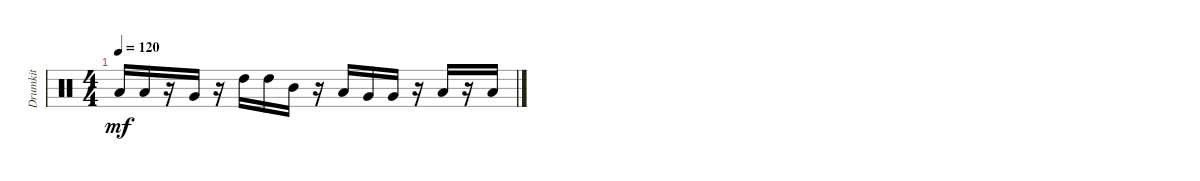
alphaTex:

\track ("Drumkit" "Drumkit") {instrument percussion}
\staff {score}
\articulation defaults
\ts (4 4)
\tempo 120
\clef neutral
\ks c "Low Tom (hit)".16{dy mf} "Low Tom (hit)".16
r.16 "Very Low Tom (hit)".16 r.16 "High Tom (hit)".16 "High Tom (hit)".16 "Mid Tom (hit)".16 r.16 "Low Tom (hit)".16 "Very Low Tom (hit)".16 "Very Low Tom (hit)".16 r.16 "Low Floor Tom (hit)".16 r.16 "Low Floor Tom (hit)".16
